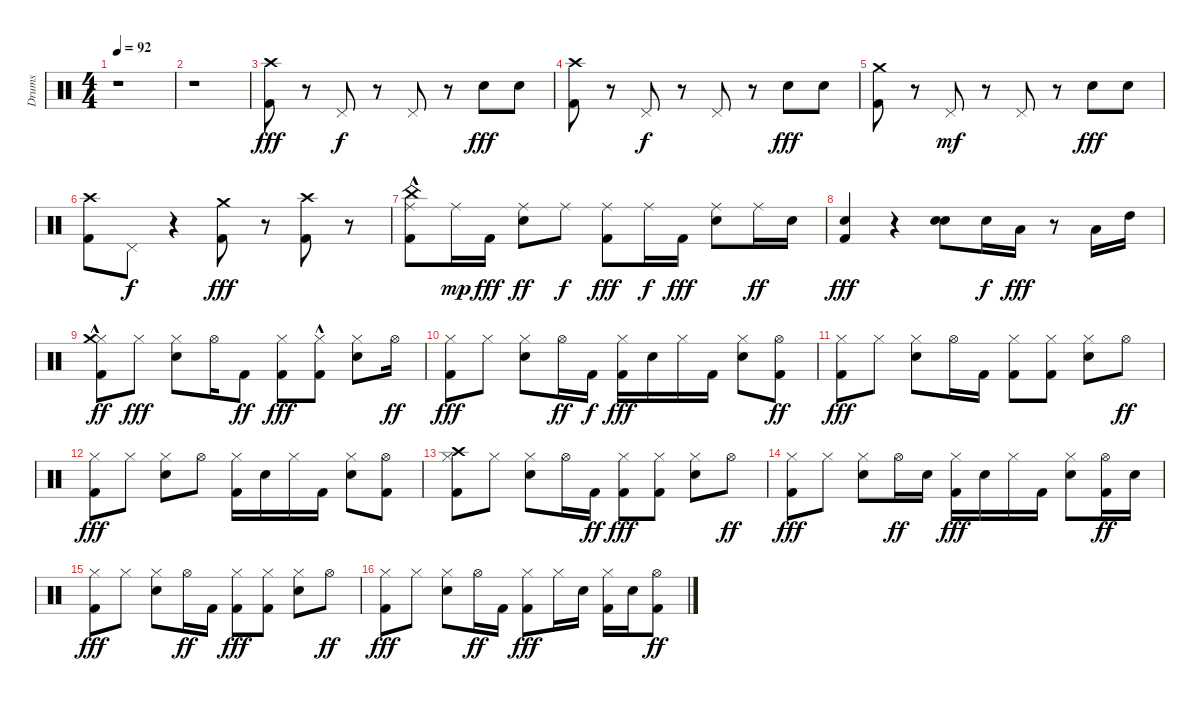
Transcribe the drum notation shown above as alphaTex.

\track ("Drums" "Drums") {instrument percussion}
\staff {score}
\articulation defaults
\ts (4 4)
\tempo 92
\clef neutral
\ks c
r.1{dy fff} |
r.1 |
("Kick (hit) 2" "Crash high (hit)").8 r.8 "Pedal Hi-Hat (hit)".8{dy f} r.8 "Pedal Hi-Hat (hit)".8 r.8 "Snare (hit) 2".8{dy fff} "Snare (hit) 2".8 |
("Kick (hit) 2" "Crash high (hit)").8 r.8 "Pedal Hi-Hat (hit)".8{dy f} r.8 "Pedal Hi-Hat (hit)".8 r.8 "Snare (hit) 2".8{dy fff} "Snare (hit) 2".8 |
("Kick (hit) 2" "Crash medium (hit)").8 r.8 "Pedal Hi-Hat (hit)".8{dy mf} r.8 "Pedal Hi-Hat (hit)".8 r.8 "Snare (hit) 2".8{dy fff} "Snare (hit) 2".8 |
("Kick (hit) 2" "Crash high (hit)").8 "Pedal Hi-Hat (hit)".8{dy f} r.4 ("Kick (hit) 2" "Crash medium (hit)").8{dy fff} r.8 ("Kick (hit) 2" "Crash high (hit)").8 r.8 |
("Kick (hit) 2"{hac} "Ride (middle)" "China (hit)").8 "Ride (middle)".16{dy mp} "Kick (hit) 2".16{dy fff} ("Snare (hit) 2" "Ride (middle)").8{dy ff} "Ride (middle)".8{dy f} ("Kick (hit) 2" "Ride (middle)").8{dy fff} "Ride (middle)".16{dy f} "Kick (hit) 2".16{dy fff} ("Snare (hit) 2" "Ride (middle)").8 "Ride (middle)".16{dy ff} "Snare (hit) 2".16 |
("Snare (hit) 2" "Kick (hit) 2").4{dy fff} r.4 ("Snare (hit) 2" "Snare (hit) 2").8 "Snare (hit) 2".16{dy f} "Low Tom (hit)".16{dy fff} r.8 "Low Floor Tom (hit)".16 "High Tom (hit)".16 |
("Kick (hit) 2" "Hi-Hat (closed)" "Crash medium (hit)"{hac}).8{dy ff} "Hi-Hat (closed)".8{dy fff} ("Snare (hit) 2" "Hi-Hat (closed)").8 "Hi-Hat (open)".16 "Kick (hit) 2".8{dy ff} ("Kick (hit) 2" "Hi-Hat (closed)").8{dy fff} ("Kick (hit) 2"{hac} "Hi-Hat (closed)").8 ("Snare (hit) 2" "Hi-Hat (closed)").8 "Hi-Hat (open)".16{dy ff} |
("Kick (hit) 2" "Hi-Hat (closed)").8{dy fff} "Hi-Hat (closed)".8 ("Snare (hit) 2" "Hi-Hat (closed)").8 "Hi-Hat (open)".16{dy ff} "Kick (hit) 2".16{dy f} ("Kick (hit) 2" "Hi-Hat (closed)").16{dy fff} "Snare (hit) 2".16 "Hi-Hat (closed)".16 "Kick (hit) 2".16 ("Snare (hit) 2" "Hi-Hat (closed)").8 ("Kick (hit) 2" "Hi-Hat (open)").8{dy ff} |
("Kick (hit) 2" "Hi-Hat (closed)").8{dy fff} "Hi-Hat (closed)".8 ("Snare (hit) 2" "Hi-Hat (closed)").8 "Hi-Hat (open)".16 "Kick (hit) 2".16 ("Kick (hit) 2" "Hi-Hat (closed)").8 ("Kick (hit) 2" "Hi-Hat (closed)").8 ("Snare (hit) 2" "Hi-Hat (closed)").8 "Hi-Hat (open)".8{dy ff} |
("Kick (hit) 2" "Hi-Hat (closed)").8{dy fff} "Hi-Hat (closed)".8 ("Snare (hit) 2" "Hi-Hat (closed)").8 "Hi-Hat (open)".8 ("Kick (hit) 2" "Hi-Hat (closed)").16 "Snare (hit) 2".16 "Hi-Hat (closed)".16 "Kick (hit) 2".16 ("Snare (hit) 2" "Hi-Hat (closed)").8 ("Kick (hit) 2" "Hi-Hat (open)").8 |
("Kick (hit) 2" "Hi-Hat (closed)" "Crash high (hit)").8 "Hi-Hat (closed)".8 ("Snare (hit) 2" "Hi-Hat (closed)").8 "Hi-Hat (open)".16 "Kick (hit) 2".16{dy ff} ("Kick (hit) 2" "Hi-Hat (closed)").8{dy fff} ("Kick (hit) 2" "Hi-Hat (closed)").8 ("Snare (hit) 2" "Hi-Hat (closed)").8 "Hi-Hat (open)".8{dy ff} |
("Kick (hit) 2" "Hi-Hat (closed)").8{dy fff} "Hi-Hat (closed)".8 ("Snare (hit) 2" "Hi-Hat (closed)").8 "Hi-Hat (open)".16{dy ff} "Snare (hit) 2".16 ("Kick (hit) 2" "Hi-Hat (closed)").16{dy fff} "Snare (hit) 2".16 "Hi-Hat (closed)".16 "Kick (hit) 2".16 ("Snare (hit) 2" "Hi-Hat (closed)").8 ("Kick (hit) 2" "Hi-Hat (open)").16{dy ff} "Snare (hit) 2".16 |
("Kick (hit) 2" "Hi-Hat (closed)").8{dy fff} "Hi-Hat (closed)".8 ("Snare (hit) 2" "Hi-Hat (closed)").8 "Hi-Hat (open)".16{dy ff} "Kick (hit) 2".16 ("Kick (hit) 2" "Hi-Hat (closed)").8{dy fff} ("Kick (hit) 2" "Hi-Hat (closed)").8 ("Snare (hit) 2" "Hi-Hat (closed)").8 "Hi-Hat (open)".8{dy ff} |
("Kick (hit) 2" "Hi-Hat (closed)").8{dy fff} "Hi-Hat (closed)".8 ("Snare (hit) 2" "Hi-Hat (closed)").8 "Hi-Hat (open)".16{dy ff} "Kick (hit) 2".16 ("Kick (hit) 2" "Hi-Hat (closed)").8{dy fff} "Hi-Hat (closed)".16 "Snare (hit) 2".16 ("Kick (hit) 2" "Hi-Hat (closed)").16 "Snare (hit) 2".16 ("Kick (hit) 2" "Hi-Hat (open)").8{dy ff}
